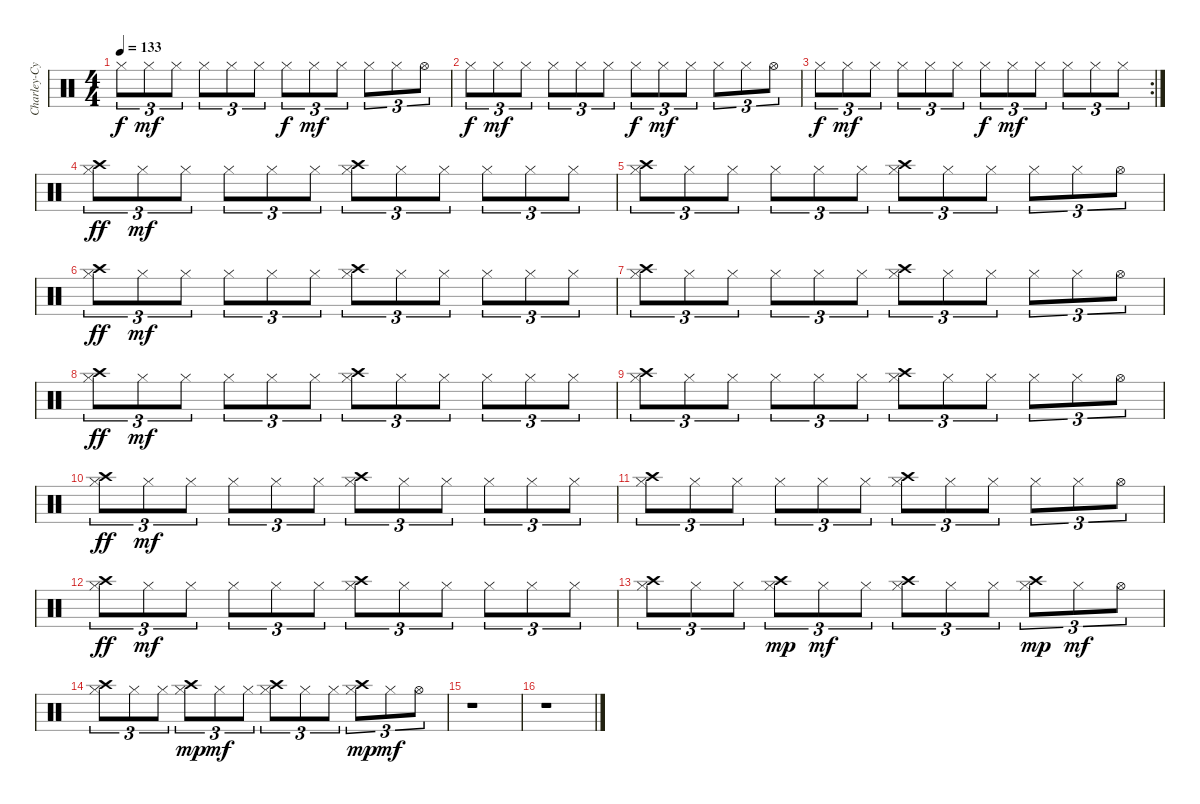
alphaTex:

\track ("Charley-Cymbales" "Charley-Cy") {instrument percussion}
\staff {score}
\articulation defaults
\ts (4 4)
\tempo 133
\clef neutral
\ks c "Hi-Hat (closed)".8{tu (3 2) dy f} "Hi-Hat (closed)".8{tu (3 2) dy mf} "Hi-Hat (closed)".8{tu (3 2)} "Hi-Hat (closed)".8{tu (3 2)} "Hi-Hat (closed)".8{tu (3 2)} "Hi-Hat (closed)".8{tu (3 2)} "Hi-Hat (closed)".8{tu (3 2) dy f} "Hi-Hat (closed)".8{tu (3 2) dy mf} "Hi-Hat (closed)".8{tu (3 2)} "Hi-Hat (closed)".8{tu (3 2)} "Hi-Hat (closed)".8{tu (3 2)} "Hi-Hat (open)".8{tu (3 2)}
|
"Hi-Hat (closed)".8{tu (3 2) dy f} "Hi-Hat (closed)".8{tu (3 2) dy mf} "Hi-Hat (closed)".8{tu (3 2)} "Hi-Hat (closed)".8{tu (3 2)} "Hi-Hat (closed)".8{tu (3 2)} "Hi-Hat (closed)".8{tu (3 2)} "Hi-Hat (closed)".8{tu (3 2) dy f} "Hi-Hat (closed)".8{tu (3 2) dy mf} "Hi-Hat (closed)".8{tu (3 2)} "Hi-Hat (closed)".8{tu (3 2)} "Hi-Hat (closed)".8{tu (3 2)} "Hi-Hat (open)".8{tu (3 2)} |
\rc 2 "Hi-Hat (closed)".8{tu (3 2) dy f} "Hi-Hat (closed)".8{tu (3 2) dy mf} "Hi-Hat (closed)".8{tu (3 2)} "Hi-Hat (closed)".8{tu (3 2)} "Hi-Hat (closed)".8{tu (3 2)} "Hi-Hat (closed)".8{tu (3 2)} "Hi-Hat (closed)".8{tu (3 2) dy f} "Hi-Hat (closed)".8{tu (3 2) dy mf} "Hi-Hat (closed)".8{tu (3 2)} "Hi-Hat (closed)".8{tu (3 2)} "Hi-Hat (closed)".8{tu (3 2)} "Hi-Hat (closed)".8{tu (3 2)}
|
("Crash high (hit)" "Hi-Hat (closed)").8{tu (3 2) dy ff} "Hi-Hat (closed)".8{tu (3 2) dy mf} "Hi-Hat (closed)".8{tu (3 2)} "Hi-Hat (closed)".8{tu (3 2)} "Hi-Hat (closed)".8{tu (3 2)} "Hi-Hat (closed)".8{tu (3 2)} ("Crash high (hit)" "Hi-Hat (closed)").8{tu (3 2)} "Hi-Hat (closed)".8{tu (3 2)} "Hi-Hat (closed)".8{tu (3 2)} "Hi-Hat (closed)".8{tu (3 2)} "Hi-Hat (closed)".8{tu (3 2)} "Hi-Hat (closed)".8{tu (3 2)} |
("Crash high (hit)" "Hi-Hat (closed)").8{tu (3 2)} "Hi-Hat (closed)".8{tu (3 2)} "Hi-Hat (closed)".8{tu (3 2)} "Hi-Hat (closed)".8{tu (3 2)} "Hi-Hat (closed)".8{tu (3 2)} "Hi-Hat (closed)".8{tu (3 2)} ("Crash high (hit)" "Hi-Hat (closed)").8{tu (3 2)} "Hi-Hat (closed)".8{tu (3 2)} "Hi-Hat (closed)".8{tu (3 2)} "Hi-Hat (closed)".8{tu (3 2)} "Hi-Hat (closed)".8{tu (3 2)} "Hi-Hat (open)".8{tu (3 2)} |
("Crash high (hit)" "Hi-Hat (closed)").8{tu (3 2) dy ff} "Hi-Hat (closed)".8{tu (3 2) dy mf} "Hi-Hat (closed)".8{tu (3 2)} "Hi-Hat (closed)".8{tu (3 2)} "Hi-Hat (closed)".8{tu (3 2)} "Hi-Hat (closed)".8{tu (3 2)} ("Crash high (hit)" "Hi-Hat (closed)").8{tu (3 2)} "Hi-Hat (closed)".8{tu (3 2)} "Hi-Hat (closed)".8{tu (3 2)} "Hi-Hat (closed)".8{tu (3 2)} "Hi-Hat (closed)".8{tu (3 2)} "Hi-Hat (closed)".8{tu (3 2)} |
("Crash high (hit)" "Hi-Hat (closed)").8{tu (3 2)} "Hi-Hat (closed)".8{tu (3 2)} "Hi-Hat (closed)".8{tu (3 2)} "Hi-Hat (closed)".8{tu (3 2)} "Hi-Hat (closed)".8{tu (3 2)} "Hi-Hat (closed)".8{tu (3 2)} ("Crash high (hit)" "Hi-Hat (closed)").8{tu (3 2)} "Hi-Hat (closed)".8{tu (3 2)} "Hi-Hat (closed)".8{tu (3 2)} "Hi-Hat (closed)".8{tu (3 2)} "Hi-Hat (closed)".8{tu (3 2)} "Hi-Hat (open)".8{tu (3 2)} |
("Crash high (hit)" "Hi-Hat (closed)").8{tu (3 2) dy ff} "Hi-Hat (closed)".8{tu (3 2) dy mf} "Hi-Hat (closed)".8{tu (3 2)} "Hi-Hat (closed)".8{tu (3 2)} "Hi-Hat (closed)".8{tu (3 2)} "Hi-Hat (closed)".8{tu (3 2)} ("Crash high (hit)" "Hi-Hat (closed)").8{tu (3 2)} "Hi-Hat (closed)".8{tu (3 2)} "Hi-Hat (closed)".8{tu (3 2)} "Hi-Hat (closed)".8{tu (3 2)} "Hi-Hat (closed)".8{tu (3 2)} "Hi-Hat (closed)".8{tu (3 2)} |
("Crash high (hit)" "Hi-Hat (closed)").8{tu (3 2)} "Hi-Hat (closed)".8{tu (3 2)} "Hi-Hat (closed)".8{tu (3 2)} "Hi-Hat (closed)".8{tu (3 2)} "Hi-Hat (closed)".8{tu (3 2)} "Hi-Hat (closed)".8{tu (3 2)} ("Crash high (hit)" "Hi-Hat (closed)").8{tu (3 2)} "Hi-Hat (closed)".8{tu (3 2)} "Hi-Hat (closed)".8{tu (3 2)} "Hi-Hat (closed)".8{tu (3 2)} "Hi-Hat (closed)".8{tu (3 2)} "Hi-Hat (open)".8{tu (3 2)} |
("Crash high (hit)" "Hi-Hat (closed)").8{tu (3 2) dy ff} "Hi-Hat (closed)".8{tu (3 2) dy mf} "Hi-Hat (closed)".8{tu (3 2)} "Hi-Hat (closed)".8{tu (3 2)} "Hi-Hat (closed)".8{tu (3 2)} "Hi-Hat (closed)".8{tu (3 2)} ("Crash high (hit)" "Hi-Hat (closed)").8{tu (3 2)} "Hi-Hat (closed)".8{tu (3 2)} "Hi-Hat (closed)".8{tu (3 2)} "Hi-Hat (closed)".8{tu (3 2)} "Hi-Hat (closed)".8{tu (3 2)} "Hi-Hat (closed)".8{tu (3 2)} |
("Crash high (hit)" "Hi-Hat (closed)").8{tu (3 2)} "Hi-Hat (closed)".8{tu (3 2)} "Hi-Hat (closed)".8{tu (3 2)} "Hi-Hat (closed)".8{tu (3 2)} "Hi-Hat (closed)".8{tu (3 2)} "Hi-Hat (closed)".8{tu (3 2)} ("Crash high (hit)" "Hi-Hat (closed)").8{tu (3 2)} "Hi-Hat (closed)".8{tu (3 2)} "Hi-Hat (closed)".8{tu (3 2)} "Hi-Hat (closed)".8{tu (3 2)} "Hi-Hat (closed)".8{tu (3 2)} "Hi-Hat (open)".8{tu (3 2)} |
("Crash high (hit)" "Hi-Hat (closed)").8{tu (3 2) dy ff} "Hi-Hat (closed)".8{tu (3 2) dy mf} "Hi-Hat (closed)".8{tu (3 2)} "Hi-Hat (closed)".8{tu (3 2)} "Hi-Hat (closed)".8{tu (3 2)} "Hi-Hat (closed)".8{tu (3 2)} ("Crash high (hit)" "Hi-Hat (closed)").8{tu (3 2)} "Hi-Hat (closed)".8{tu (3 2)} "Hi-Hat (closed)".8{tu (3 2)} "Hi-Hat (closed)".8{tu (3 2)} "Hi-Hat (closed)".8{tu (3 2)} "Hi-Hat (closed)".8{tu (3 2)} |
("Crash high (hit)" "Hi-Hat (closed)").8{tu (3 2)} "Hi-Hat (closed)".8{tu (3 2)} "Hi-Hat (closed)".8{tu (3 2)} ("Crash high (hit)" "Hi-Hat (closed)").8{tu (3 2) dy mp} "Hi-Hat (closed)".8{tu (3 2) dy mf} "Hi-Hat (closed)".8{tu (3 2)} ("Crash high (hit)" "Hi-Hat (closed)").8{tu (3 2)} "Hi-Hat (closed)".8{tu (3 2)} "Hi-Hat (closed)".8{tu (3 2)} ("Crash high (hit)" "Hi-Hat (closed)").8{tu (3 2) dy mp} "Hi-Hat (closed)".8{tu (3 2) dy mf} "Hi-Hat (open)".8{tu (3 2)} |
("Crash high (hit)" "Hi-Hat (closed)").8{tu (3 2)} "Hi-Hat (closed)".8{tu (3 2)} "Hi-Hat (closed)".8{tu (3 2)} ("Crash high (hit)" "Hi-Hat (closed)").8{tu (3 2) dy mp} "Hi-Hat (closed)".8{tu (3 2) dy mf} "Hi-Hat (closed)".8{tu (3 2)} ("Crash high (hit)" "Hi-Hat (closed)").8{tu (3 2)} "Hi-Hat (closed)".8{tu (3 2)} "Hi-Hat (closed)".8{tu (3 2)} ("Crash high (hit)" "Hi-Hat (closed)").8{tu (3 2) dy mp} "Hi-Hat (closed)".8{tu (3 2) dy mf} "Hi-Hat (open)".8{tu (3 2)} |
r.1 |
r.1
